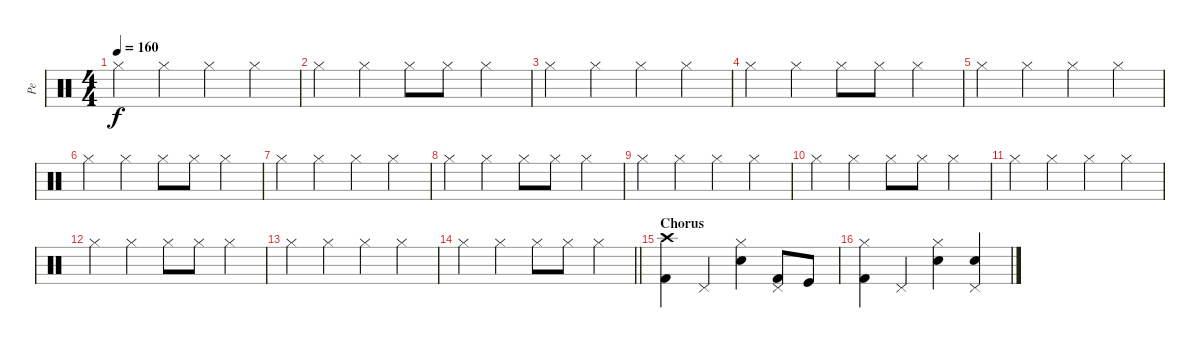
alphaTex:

\track ("Pe" "Pe") {instrument percussion}
\staff {score}
\articulation defaults
\ts (4 4)
\tempo 160
\clef neutral
\ks c "Hi-Hat (closed)".4{dy f} "Hi-Hat (closed)".4 "Hi-Hat (closed)".4 "Hi-Hat (closed)".4
|
"Hi-Hat (closed)".4 "Hi-Hat (closed)".4 "Hi-Hat (closed)".8 "Hi-Hat (closed)".8 "Hi-Hat (closed)".4 |
"Hi-Hat (closed)".4 "Hi-Hat (closed)".4 "Hi-Hat (closed)".4 "Hi-Hat (closed)".4 |
"Hi-Hat (closed)".4 "Hi-Hat (closed)".4 "Hi-Hat (closed)".8 "Hi-Hat (closed)".8 "Hi-Hat (closed)".4 |
"Hi-Hat (closed)".4 "Hi-Hat (closed)".4 "Hi-Hat (closed)".4 "Hi-Hat (closed)".4 |
"Hi-Hat (closed)".4 "Hi-Hat (closed)".4 "Hi-Hat (closed)".8 "Hi-Hat (closed)".8 "Hi-Hat (closed)".4 |
"Hi-Hat (closed)".4 "Hi-Hat (closed)".4 "Hi-Hat (closed)".4 "Hi-Hat (closed)".4 |
"Hi-Hat (closed)".4 "Hi-Hat (closed)".4 "Hi-Hat (closed)".8 "Hi-Hat (closed)".8 "Hi-Hat (closed)".4 |
"Hi-Hat (closed)".4 "Hi-Hat (closed)".4 "Hi-Hat (closed)".4 "Hi-Hat (closed)".4 |
"Hi-Hat (closed)".4 "Hi-Hat (closed)".4 "Hi-Hat (closed)".8 "Hi-Hat (closed)".8 "Hi-Hat (closed)".4 |
"Hi-Hat (closed)".4 "Hi-Hat (closed)".4 "Hi-Hat (closed)".4 "Hi-Hat (closed)".4 |
"Hi-Hat (closed)".4 "Hi-Hat (closed)".4 "Hi-Hat (closed)".8 "Hi-Hat (closed)".8 "Hi-Hat (closed)".4 |
"Hi-Hat (closed)".4 "Hi-Hat (closed)".4 "Hi-Hat (closed)".4 "Hi-Hat (closed)".4 |
\barLineRight lightlight "Hi-Hat (closed)".4 "Hi-Hat (closed)".4 "Hi-Hat (closed)".8 "Hi-Hat (closed)".8 "Hi-Hat (closed)".4
|
\section ("" "Chorus")
("Kick (hit) 2" "Crash high (hit)").4 "Pedal Hi-Hat (hit)".4 ("Electric Snare (hit)" "Hi-Hat (closed)").4 ("Kick (hit) 2" "Pedal Hi-Hat (hit)").8 "Kick (hit)".8 |
("Kick (hit) 2" "Hi-Hat (closed)").4 "Pedal Hi-Hat (hit)".4 ("Electric Snare (hit)" "Hi-Hat (closed)").4 ("Electric Snare (hit)" "Pedal Hi-Hat (hit)").4
